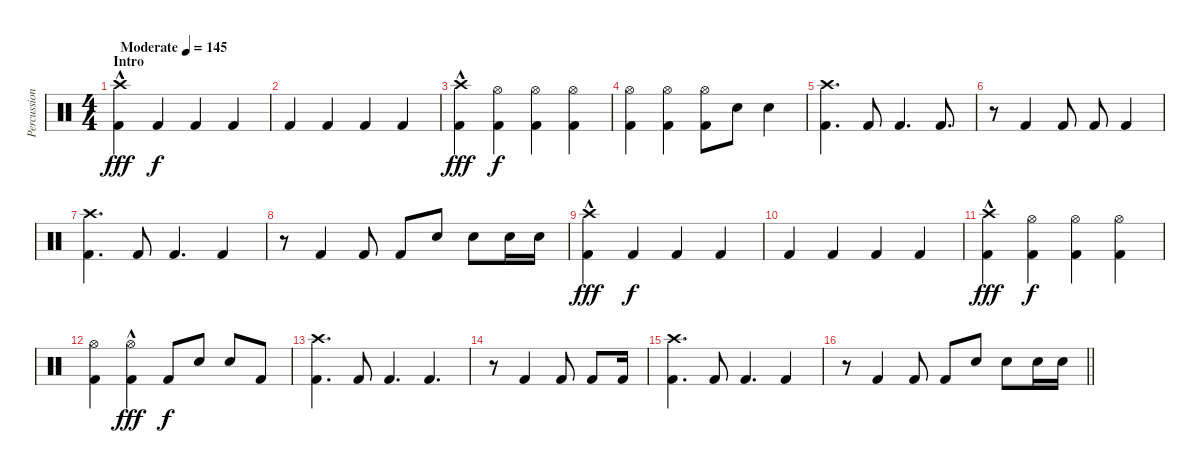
\track ("Percussion" "Percussion") {instrument percussion}
\staff {score}
\articulation defaults
\ts (4 4)
\section ("" "Intro")
\tempo (145 "Moderate")
\clef neutral
\ks c
("Crash high (hit)"{hac} "Kick (hit) 2").4{dy fff} "Kick (hit) 2".4{dy f} "Kick (hit) 2".4 "Kick (hit) 2".4 |
"Kick (hit) 2".4 "Kick (hit) 2".4 "Kick (hit) 2".4 "Kick (hit) 2".4 |
("Crash high (hit)"{hac} "Kick (hit) 2").4{dy fff} ("Hi-Hat (open)" "Kick (hit) 2").4{dy f} ("Hi-Hat (open)" "Kick (hit) 2").4 ("Hi-Hat (open)" "Kick (hit) 2").4 |
("Hi-Hat (open)" "Kick (hit) 2").4 ("Hi-Hat (open)" "Kick (hit) 2").4 ("Hi-Hat (open)" "Kick (hit) 2").8 "Electric Snare (hit)".8 "Electric Snare (hit)".4 |
("Crash high (hit)" "Kick (hit) 2").4{d} "Kick (hit) 2".8 "Kick (hit) 2".4{d} "Kick (hit) 2".8{d} |
r.8 "Kick (hit) 2".4 "Kick (hit) 2".8 "Kick (hit) 2".8 "Kick (hit) 2".4 |
("Crash high (hit)" "Kick (hit) 2").4{d} "Kick (hit) 2".8 "Kick (hit) 2".4{d} "Kick (hit) 2".4 |
r.8 "Kick (hit) 2".4 "Kick (hit) 2".8 "Kick (hit) 2".8 "Electric Snare (hit)".8 "Electric Snare (hit)".8 "Electric Snare (hit)".16 "Electric Snare (hit)".16 |
("Crash high (hit)"{hac} "Kick (hit) 2").4{dy fff} "Kick (hit) 2".4{dy f} "Kick (hit) 2".4 "Kick (hit) 2".4 |
"Kick (hit) 2".4 "Kick (hit) 2".4 "Kick (hit) 2".4 "Kick (hit) 2".4 |
("Crash high (hit)"{hac} "Kick (hit) 2").4{dy fff} ("Hi-Hat (open)" "Kick (hit) 2").4{dy f} ("Hi-Hat (open)" "Kick (hit) 2").4 ("Hi-Hat (open)" "Kick (hit) 2").4 |
("Hi-Hat (open)" "Kick (hit) 2").4 ("Hi-Hat (open)"{hac} "Kick (hit) 2").4{dy fff} "Kick (hit) 2".8{dy f} "Electric Snare (hit)".8 "Electric Snare (hit)".8 "Kick (hit) 2".8 |
("Crash high (hit)" "Kick (hit) 2").4{d} "Kick (hit) 2".8 "Kick (hit) 2".4{d} "Kick (hit) 2".4{d} |
r.8 "Kick (hit) 2".4 "Kick (hit) 2".8 "Kick (hit) 2".8 "Kick (hit) 2".16 |
("Crash high (hit)" "Kick (hit) 2").4{d} "Kick (hit) 2".8 "Kick (hit) 2".4{d} "Kick (hit) 2".4 |
\barLineRight lightlight
r.8 "Kick (hit) 2".4 "Kick (hit) 2".8 "Kick (hit) 2".8 "Electric Snare (hit)".8 "Electric Snare (hit)".8 "Electric Snare (hit)".16 "Electric Snare (hit)".16
